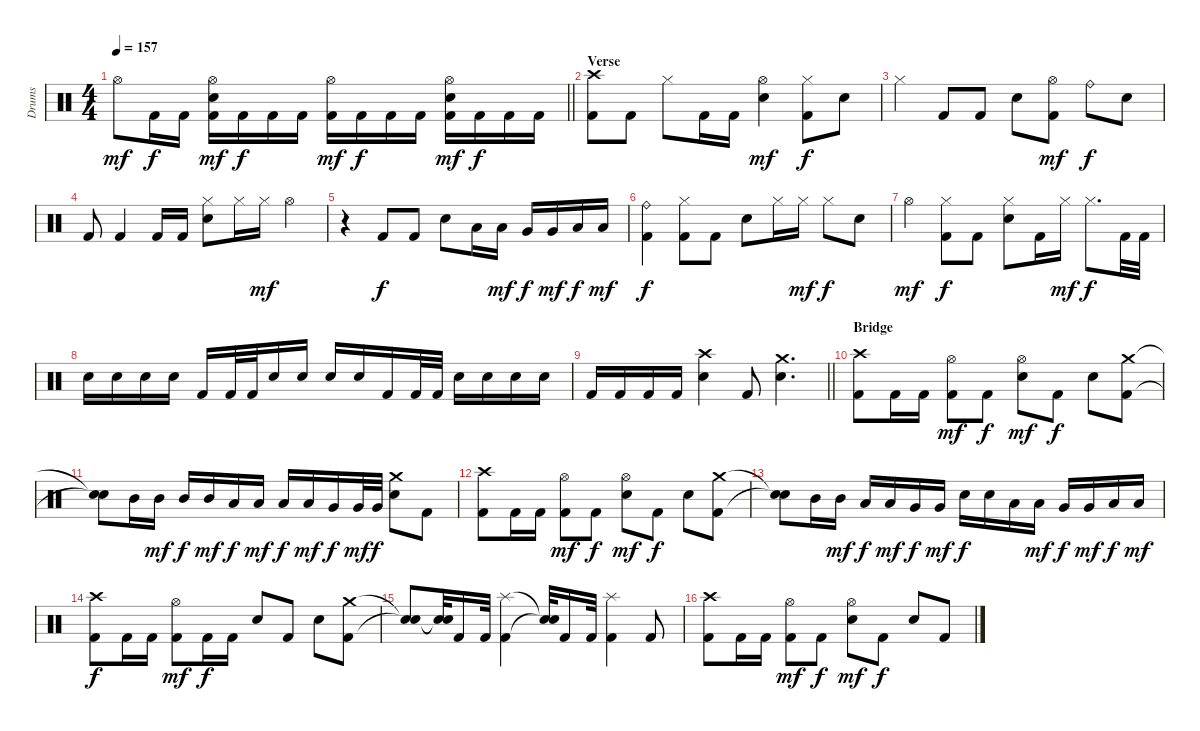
\track ("Drums" "Drums") {instrument percussion}
\staff {score}
\articulation defaults
\ts (4 4)
\tempo 157
\clef neutral
\barLineRight lightlight
\ks c "Hi-Hat (open)".8{dy mf} "Kick (hit) 2".16{dy f} "Kick (hit) 2".16
("Kick (hit) 2" "Hi-Hat (open)" "Electric Snare (hit)").16{dy mf} "Kick (hit) 2".16{dy f} "Kick (hit) 2".16 "Kick (hit) 2".16 ("Kick (hit) 2" "Hi-Hat (open)").16{dy mf} "Kick (hit) 2".16{dy f} "Kick (hit) 2".16 "Kick (hit) 2".16 ("Kick (hit) 2" "Hi-Hat (open)" "Electric Snare (hit)").16{dy mf} "Kick (hit) 2".16{dy f} "Kick (hit) 2".16 "Kick (hit) 2".16 |
\section ("" "Verse")
("Kick (hit) 2" "Crash high (hit)").8 "Kick (hit) 2".8 "Hi-Hat (closed)".8 "Kick (hit) 2".16 "Kick (hit) 2".16 ("Hi-Hat (open)" "Electric Snare (hit)").4{dy mf} ("Kick (hit) 2" "Hi-Hat (closed)").8{dy f} "Electric Snare (hit)".8 |
"Hi-Hat (closed)".4 "Kick (hit) 2".8 "Kick (hit) 2".8 "Electric Snare (hit)".8 ("Kick (hit) 2" "Hi-Hat (open)").8{dy mf} "Ride (bell)".8{dy f} "Electric Snare (hit)".8 |
"Kick (hit) 2".8 "Kick (hit) 2".4 "Kick (hit) 2".16 "Kick (hit) 2".16 ("Hi-Hat (closed)" "Electric Snare (hit)").8 "Hi-Hat (closed)".16 "Hi-Hat (closed)".16{dy mf} "Hi-Hat (open)".4 |
r.4 "Kick (hit) 2".8{dy f} "Kick (hit) 2".8 "Electric Snare (hit)".8 "Low Tom (hit)".16 "Low Tom (hit)".16{dy mf} "Very Low Tom (hit)".16{dy f} "Very Low Tom (hit)".16{dy mf} "Low Floor Tom (hit)".16{dy f} "Low Floor Tom (hit)".16{dy mf} |
("Kick (hit) 2" "Ride (bell)").4{dy f} ("Kick (hit) 2" "Hi-Hat (closed)").8 "Kick (hit) 2".8 "Electric Snare (hit)".8 "Hi-Hat (closed)".16 "Hi-Hat (closed)".16{dy mf} "Hi-Hat (closed)".8{dy f} "Electric Snare (hit)".8 |
"Hi-Hat (open)".4{dy mf} ("Kick (hit) 2" "Hi-Hat (closed)").8{dy f} "Kick (hit) 2".8 ("Hi-Hat (closed)" "Electric Snare (hit)").8 "Kick (hit) 2".16 "Hi-Hat (closed)".16{dy mf} "Hi-Hat (closed)".8{d dy f} "Kick (hit) 2".32 "Kick (hit) 2".32 |
"Electric Snare (hit)".16 "Electric Snare (hit)".16 "Electric Snare (hit)".16 "Electric Snare (hit)".16 "Kick (hit) 2".16 "Kick (hit) 2".32 "Kick (hit) 2".32 "Electric Snare (hit)".16 "Electric Snare (hit)".16 "Electric Snare (hit)".16 "Electric Snare (hit)".16 "Kick (hit) 2".16 "Kick (hit) 2".32 "Kick (hit) 2".32 "Electric Snare (hit)".16 "Electric Snare (hit)".16 "Electric Snare (hit)".16 "Electric Snare (hit)".16 |
\barLineRight lightlight "Kick (hit) 2".16 "Kick (hit) 2".16 "Kick (hit) 2".16 "Kick (hit) 2".16
("Crash high (hit)" "Electric Snare (hit)").4 "Kick (hit) 2".8 ("Crash medium (hit)" "Electric Snare (hit)").4{d} |
\section ("" "Bridge")
("Kick (hit) 2" "Crash high (hit)").8 "Kick (hit) 2".16 "Kick (hit) 2".16 ("Kick (hit) 2" "Hi-Hat (open)").8{dy mf} "Kick (hit) 2".8{dy f} ("Hi-Hat (open)" "Electric Snare (hit)").8{dy mf} "Kick (hit) 2".8{dy f} "Electric Snare (hit)".8 ("Kick (hit) 2" "Crash medium (hit)").8 |
("Snare (hit)"{t} "Snare (hit)"{t}).8 "Mid Tom (hit)".16 "Mid Tom (hit)".16{dy mf} "Mid Tom (hit)".16{dy f} "Mid Tom (hit)".16{dy mf} "Low Tom (hit)".16{dy f} "Low Tom (hit)".16{dy mf} "Low Tom (hit)".16{dy f} "Low Tom (hit)".16{dy mf} "Very Low Tom (hit)".16{dy f} "Very Low Tom (hit)".32{dy mf} "Very Low Tom (hit)".32{dy f} ("Crash medium (hit)" "Electric Snare (hit)").8 "Kick (hit) 2".8 |
("Kick (hit) 2" "Crash high (hit)").8 "Kick (hit) 2".16 "Kick (hit) 2".16 ("Kick (hit) 2" "Hi-Hat (open)").8{dy mf} "Kick (hit) 2".8{dy f} ("Hi-Hat (open)" "Electric Snare (hit)").8{dy mf} "Kick (hit) 2".8{dy f} "Electric Snare (hit)".8 ("Kick (hit) 2" "Crash medium (hit)").8 |
("Snare (hit)"{t} "Snare (hit)"{t}).8 "Mid Tom (hit)".16 "Mid Tom (hit)".16{dy mf} "Low Tom (hit)".16{dy f} "Low Tom (hit)".16{dy mf} "Very Low Tom (hit)".16{dy f} "Very Low Tom (hit)".16{dy mf} "Electric Snare (hit)".16{dy f} "Electric Snare (hit)".16 "Low Tom (hit)".16 "Low Tom (hit)".16{dy mf} "Very Low Tom (hit)".16{dy f} "Very Low Tom (hit)".16{dy mf} "Low Floor Tom (hit)".16{dy f} "Low Floor Tom (hit)".16{dy mf} |
("Kick (hit) 2" "Crash high (hit)").8{dy f} "Kick (hit) 2".16 "Kick (hit) 2".16 ("Kick (hit) 2" "Hi-Hat (open)").8{dy mf} "Kick (hit) 2".16{dy f} "Kick (hit) 2".16 "Electric Snare (hit)".8 "Kick (hit) 2".8 "Electric Snare (hit)".8 ("Kick (hit) 2" "Crash medium (hit)").8 |
("Snare (hit)"{t} "Snare (hit)"{t}).8 ("Snare (hit)"{t} "Snare (hit)"{t}).32 "Kick (hit) 2".16 "Kick (hit) 2".32 ("Kick (hit) 2" "Splash (hit)").4 ("Snare (hit)"{t} "Snare (hit)"{t}).32 "Kick (hit) 2".16 "Kick (hit) 2".32 ("Kick (hit) 2" "Splash (hit)").4 "Kick (hit) 2".8 |
("Kick (hit) 2" "Crash high (hit)").8 "Kick (hit) 2".16 "Kick (hit) 2".16 ("Kick (hit) 2" "Hi-Hat (open)").8{dy mf} "Kick (hit) 2".8{dy f} ("Hi-Hat (open)" "Electric Snare (hit)").8{dy mf} "Kick (hit) 2".8{dy f} "Electric Snare (hit)".8 "Kick (hit) 2".8
